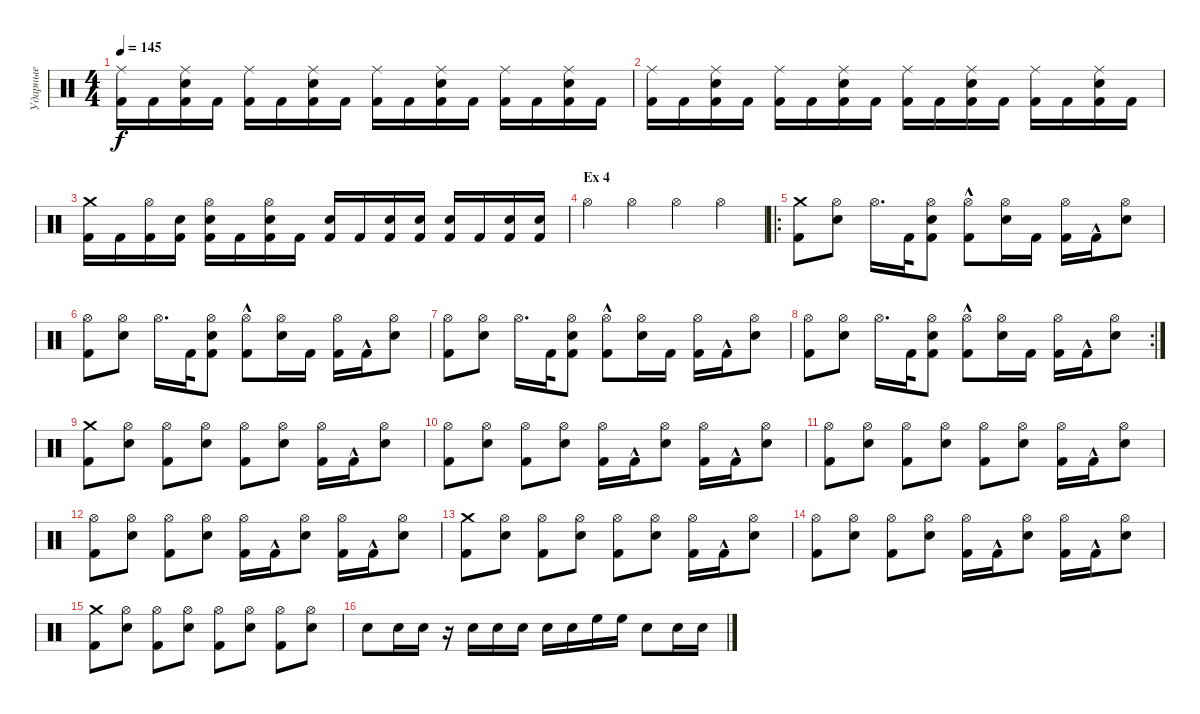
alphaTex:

\track ("Ударные" "Ударные") {instrument percussion}
\staff {score}
\articulation defaults
\ts (4 4)
\tempo 145
\clef neutral
\ks c
("Ride (middle)" "Kick (hit) 2").16{dy f} "Kick (hit) 2".16 ("Kick (hit) 2" "Snare (hit) 2" "Ride (middle)").16 "Kick (hit) 2".16 ("Kick (hit) 2" "Ride (middle)").16 "Kick (hit) 2".16 ("Kick (hit) 2" "Snare (hit) 2" "Ride (middle)").16 "Kick (hit) 2".16 ("Kick (hit) 2" "Ride (middle)").16 "Kick (hit) 2".16 ("Kick (hit) 2" "Snare (hit) 2" "Ride (middle)").16 "Kick (hit) 2".16 ("Kick (hit) 2" "Ride (middle)").16 "Kick (hit) 2".16 ("Kick (hit) 2" "Snare (hit) 2" "Ride (middle)").16 "Kick (hit) 2".16 |
("Ride (middle)" "Kick (hit) 2").16 "Kick (hit) 2".16 ("Kick (hit) 2" "Snare (hit) 2" "Ride (middle)").16 "Kick (hit) 2".16 ("Kick (hit) 2" "Ride (middle)").16 "Kick (hit) 2".16 ("Kick (hit) 2" "Snare (hit) 2" "Ride (middle)").16 "Kick (hit) 2".16 ("Kick (hit) 2" "Ride (middle)").16 "Kick (hit) 2".16 ("Kick (hit) 2" "Snare (hit) 2" "Ride (middle)").16 "Kick (hit) 2".16 ("Kick (hit) 2" "Ride (middle)").16 "Kick (hit) 2".16 ("Kick (hit) 2" "Snare (hit) 2" "Ride (middle)").16 "Kick (hit) 2".16 |
("Crash medium (hit)" "Kick (hit) 2").16 "Kick (hit) 2".16 ("Hi-Hat (open)" "Kick (hit) 2").16 ("Snare (hit) 2" "Kick (hit) 2").16 ("Snare (hit) 2" "Hi-Hat (open)" "Kick (hit) 2").16 "Kick (hit) 2".16 ("Snare (hit) 2" "Hi-Hat (open)" "Kick (hit) 2").16 "Kick (hit) 2".16 ("Snare (hit) 2" "Kick (hit) 2").16 "Kick (hit) 2".16 ("Snare (hit) 2" "Kick (hit) 2").16 ("Snare (hit) 2" "Kick (hit) 2").16 ("Snare (hit) 2" "Kick (hit) 2").16 "Kick (hit) 2".16 ("Snare (hit) 2" "Kick (hit) 2").16 ("Snare (hit) 2" "Kick (hit) 2").16 |
\section ("" "Ex 4")
"Hi-Hat (open)".4 "Hi-Hat (open)".4 "Hi-Hat (open)".4 "Hi-Hat (open)".4 |
\ro
("Kick (hit) 2" "Crash medium (hit)").8 ("Snare (hit) 2" "Hi-Hat (open)").8 "Hi-Hat (open)".16{d} "Kick (hit) 2".32 ("Kick (hit) 2" "Snare (hit) 2" "Hi-Hat (open)").8 ("Kick (hit) 2"{hac} "Hi-Hat (open)").8 ("Snare (hit) 2" "Hi-Hat (open)").16 "Kick (hit) 2".16 ("Kick (hit) 2" "Hi-Hat (open)").16 "Kick (hit) 2"{hac}.16 ("Snare (hit) 2" "Hi-Hat (open)").8 |
("Hi-Hat (open)" "Kick (hit) 2").8 ("Snare (hit) 2" "Hi-Hat (open)").8 "Hi-Hat (open)".16{d} "Kick (hit) 2".32 ("Kick (hit) 2" "Snare (hit) 2" "Hi-Hat (open)").8 ("Kick (hit) 2"{hac} "Hi-Hat (open)").8 ("Snare (hit) 2" "Hi-Hat (open)").16 "Kick (hit) 2".16 ("Kick (hit) 2" "Hi-Hat (open)").16 "Kick (hit) 2"{hac}.16 ("Snare (hit) 2" "Hi-Hat (open)").8 |
("Hi-Hat (open)" "Kick (hit) 2").8 ("Snare (hit) 2" "Hi-Hat (open)").8 "Hi-Hat (open)".16{d} "Kick (hit) 2".32 ("Kick (hit) 2" "Snare (hit) 2" "Hi-Hat (open)").8 ("Kick (hit) 2"{hac} "Hi-Hat (open)").8 ("Snare (hit) 2" "Hi-Hat (open)").16 "Kick (hit) 2".16 ("Kick (hit) 2" "Hi-Hat (open)").16 "Kick (hit) 2"{hac}.16 ("Snare (hit) 2" "Hi-Hat (open)").8 |
\rc 2
("Hi-Hat (open)" "Kick (hit) 2").8 ("Snare (hit) 2" "Hi-Hat (open)").8 "Hi-Hat (open)".16{d} "Kick (hit) 2".32 ("Kick (hit) 2" "Snare (hit) 2" "Hi-Hat (open)").8 ("Kick (hit) 2"{hac} "Hi-Hat (open)").8 ("Snare (hit) 2" "Hi-Hat (open)").16 "Kick (hit) 2".16 ("Kick (hit) 2" "Hi-Hat (open)").16 "Kick (hit) 2"{hac}.16 ("Snare (hit) 2" "Hi-Hat (open)").8 |
("Kick (hit) 2" "Crash medium (hit)").8 ("Snare (hit) 2" "Hi-Hat (open)").8 ("Kick (hit) 2" "Hi-Hat (open)").8 ("Snare (hit) 2" "Hi-Hat (open)").8 ("Kick (hit) 2" "Hi-Hat (open)").8 ("Snare (hit) 2" "Hi-Hat (open)").8 ("Kick (hit) 2" "Hi-Hat (open)").16 "Kick (hit) 2"{hac}.16 ("Snare (hit) 2" "Hi-Hat (open)").8 |
("Kick (hit) 2" "Hi-Hat (open)").8 ("Snare (hit) 2" "Hi-Hat (open)").8 ("Kick (hit) 2" "Hi-Hat (open)").8 ("Snare (hit) 2" "Hi-Hat (open)").8 ("Kick (hit) 2" "Hi-Hat (open)").16 "Kick (hit) 2"{hac}.16 ("Snare (hit) 2" "Hi-Hat (open)").8 ("Kick (hit) 2" "Hi-Hat (open)").16 "Kick (hit) 2"{hac}.16 ("Snare (hit) 2" "Hi-Hat (open)").8 |
("Hi-Hat (open)" "Kick (hit) 2").8 ("Snare (hit) 2" "Hi-Hat (open)").8 ("Kick (hit) 2" "Hi-Hat (open)").8 ("Snare (hit) 2" "Hi-Hat (open)").8 ("Kick (hit) 2" "Hi-Hat (open)").8 ("Snare (hit) 2" "Hi-Hat (open)").8 ("Kick (hit) 2" "Hi-Hat (open)").16 "Kick (hit) 2"{hac}.16 ("Snare (hit) 2" "Hi-Hat (open)").8 |
("Kick (hit) 2" "Hi-Hat (open)").8 ("Snare (hit) 2" "Hi-Hat (open)").8 ("Kick (hit) 2" "Hi-Hat (open)").8 ("Snare (hit) 2" "Hi-Hat (open)").8 ("Kick (hit) 2" "Hi-Hat (open)").16 "Kick (hit) 2"{hac}.16 ("Snare (hit) 2" "Hi-Hat (open)").8 ("Kick (hit) 2" "Hi-Hat (open)").16 "Kick (hit) 2"{hac}.16 ("Snare (hit) 2" "Hi-Hat (open)").8 |
("Kick (hit) 2" "Crash medium (hit)").8 ("Snare (hit) 2" "Hi-Hat (open)").8 ("Kick (hit) 2" "Hi-Hat (open)").8 ("Snare (hit) 2" "Hi-Hat (open)").8 ("Kick (hit) 2" "Hi-Hat (open)").8 ("Snare (hit) 2" "Hi-Hat (open)").8 ("Kick (hit) 2" "Hi-Hat (open)").16 "Kick (hit) 2"{hac}.16 ("Snare (hit) 2" "Hi-Hat (open)").8 |
("Kick (hit) 2" "Hi-Hat (open)").8 ("Snare (hit) 2" "Hi-Hat (open)").8 ("Kick (hit) 2" "Hi-Hat (open)").8 ("Snare (hit) 2" "Hi-Hat (open)").8 ("Kick (hit) 2" "Hi-Hat (open)").16 "Kick (hit) 2"{hac}.16 ("Snare (hit) 2" "Hi-Hat (open)").8 ("Kick (hit) 2" "Hi-Hat (open)").16 "Kick (hit) 2"{hac}.16 ("Snare (hit) 2" "Hi-Hat (open)").8 |
("Kick (hit) 2" "Crash medium (hit)").8 ("Snare (hit) 2" "Hi-Hat (open)").8 ("Kick (hit) 2" "Hi-Hat (open)").8 ("Snare (hit) 2" "Hi-Hat (open)").8 ("Kick (hit) 2" "Hi-Hat (open)").8 ("Snare (hit) 2" "Hi-Hat (open)").8 ("Kick (hit) 2" "Hi-Hat (open)").8 ("Snare (hit) 2" "Hi-Hat (open)").8 |
"Snare (hit) 2".8 "Snare (hit) 2".16 "Snare (hit) 2".16 r.16 "Snare (hit) 2".16 "Snare (hit) 2".16 "Snare (hit) 2".16 "Snare (hit) 2".16 "Snare (hit) 2".16 "High Floor Tom (hit)".16 "High Floor Tom (hit)".16 "Snare (hit) 2".8 "Snare (hit) 2".16 "Snare (hit) 2".16
